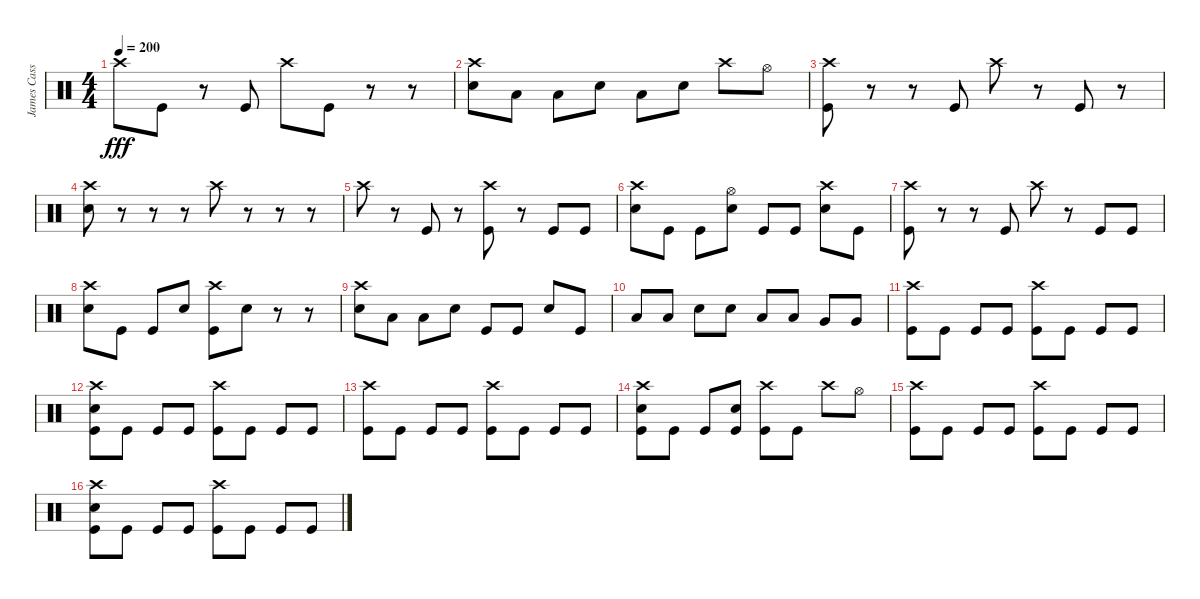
\track ("James Cassells" "James Cass") {instrument percussion}
\staff {score}
\articulation defaults
\ts (4 4)
\tempo 200
\clef neutral
\ks c "Crash high (hit)".8{dy fff} "Kick (hit)".8
r.8 "Kick (hit)".8 "Crash high (hit)".8 "Kick (hit)".8 r.8 r.8 |
("Crash high (hit)" "Electric Snare (hit)").8 "Low Tom (hit)".8 "Low Tom (hit)".8 "Electric Snare (hit)".8 "Low Tom (hit)".8 "Electric Snare (hit)".8 "Crash high (hit)".8 "Hi-Hat (open)".8 |
("Crash high (hit)" "Kick (hit)").8 r.8 r.8 "Kick (hit)".8 "Crash high (hit)".8 r.8 "Kick (hit)".8 r.8 |
("Crash high (hit)" "Electric Snare (hit)").8 r.8 r.8 r.8 "Crash high (hit)".8 r.8 r.8 r.8 |
"Crash high (hit)".8 r.8 "Kick (hit)".8 r.8 ("Crash high (hit)" "Kick (hit)").8 r.8 "Kick (hit)".8 "Kick (hit)".8 |
("Crash high (hit)" "Electric Snare (hit)").8 "Kick (hit)".8 "Kick (hit)".8 ("Hi-Hat (open)" "Electric Snare (hit)").8 "Kick (hit)".8 "Kick (hit)".8 ("Crash high (hit)" "Electric Snare (hit)").8 "Kick (hit)".8 |
("Crash high (hit)" "Kick (hit)").8 r.8 r.8 "Kick (hit)".8 "Crash high (hit)".8 r.8 "Kick (hit)".8 "Kick (hit)".8 |
("Crash high (hit)" "Electric Snare (hit)").8 "Kick (hit)".8 "Kick (hit)".8 "Electric Snare (hit)".8 ("Crash high (hit)" "Kick (hit)").8 "Electric Snare (hit)".8 r.8 r.8 |
("Crash high (hit)" "Electric Snare (hit)").8 "Low Tom (hit)".8 "Low Tom (hit)".8 "Electric Snare (hit)".8 "Kick (hit)".8 "Kick (hit)".8 "Electric Snare (hit)".8 "Kick (hit)".8 |
"Low Tom (hit)".8 "Low Tom (hit)".8 "Electric Snare (hit)".8 "Electric Snare (hit)".8 "Low Tom (hit)".8 "Low Tom (hit)".8 "Very Low Tom (hit)".8 "Very Low Tom (hit)".8 |
("Crash high (hit)" "Kick (hit)").8 "Kick (hit)".8 "Kick (hit)".8 "Kick (hit)".8 ("Crash high (hit)" "Kick (hit)").8 "Kick (hit)".8 "Kick (hit)".8 "Kick (hit)".8 |
("Crash high (hit)" "Electric Snare (hit)" "Kick (hit)").8 "Kick (hit)".8 "Kick (hit)".8 "Kick (hit)".8 ("Crash high (hit)" "Kick (hit)").8 "Kick (hit)".8 "Kick (hit)".8 "Kick (hit)".8 |
("Crash high (hit)" "Kick (hit)").8 "Kick (hit)".8 "Kick (hit)".8 "Kick (hit)".8 ("Crash high (hit)" "Kick (hit)").8 "Kick (hit)".8 "Kick (hit)".8 "Kick (hit)".8 |
("Crash high (hit)" "Electric Snare (hit)" "Kick (hit)").8 "Kick (hit)".8 "Kick (hit)".8 ("Electric Snare (hit)" "Kick (hit)").8 ("Crash high (hit)" "Kick (hit)").8 "Kick (hit)".8 "Crash high (hit)".8 "Hi-Hat (open)".8 |
("Crash high (hit)" "Kick (hit)").8 "Kick (hit)".8 "Kick (hit)".8 "Kick (hit)".8 ("Crash high (hit)" "Kick (hit)").8 "Kick (hit)".8 "Kick (hit)".8 "Kick (hit)".8 |
("Crash high (hit)" "Electric Snare (hit)" "Kick (hit)").8 "Kick (hit)".8 "Kick (hit)".8 "Kick (hit)".8 ("Crash high (hit)" "Kick (hit)").8 "Kick (hit)".8 "Kick (hit)".8 "Kick (hit)".8
